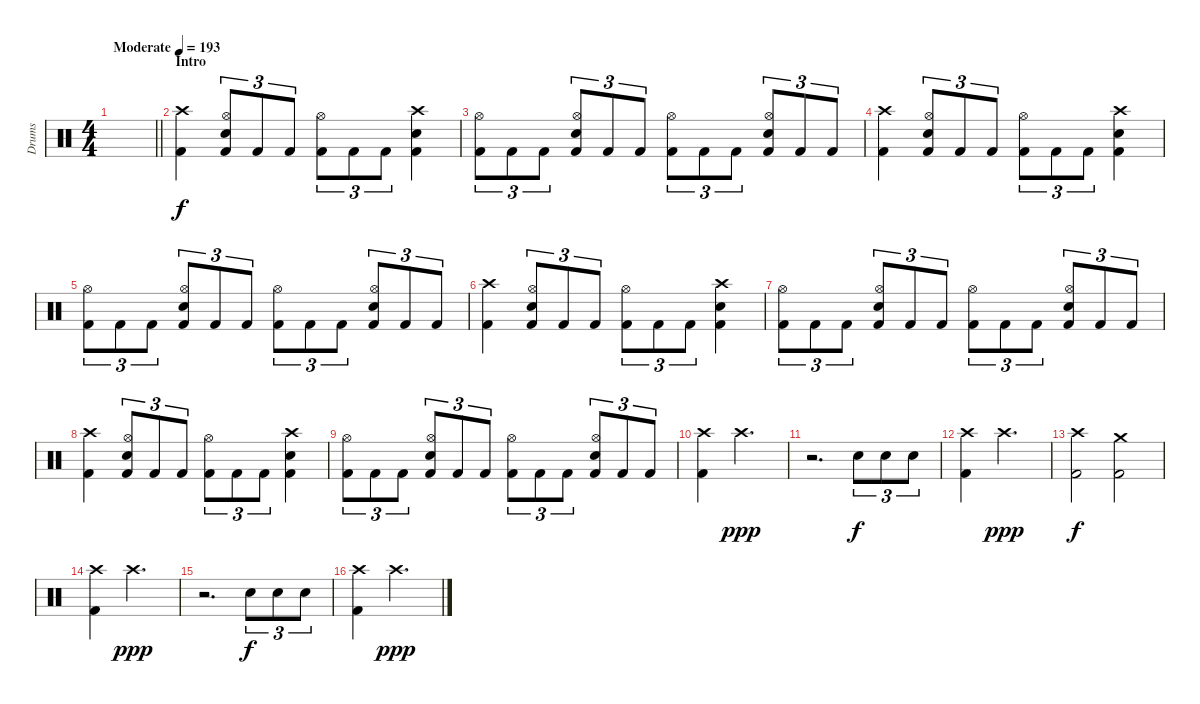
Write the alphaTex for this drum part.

\track ("Drums" "Drums") {instrument percussion}
\staff {score}
\articulation defaults
\ts (4 4)
\tempo (193 "Moderate")
\clef neutral
\barLineRight lightlight
\ks c
|
\section ("" "Intro")
("Crash high (hit)" "Kick (hit) 2").4 ("Hi-Hat (open)" "Electric Snare (hit)" "Kick (hit) 2").8{tu (3 2)} "Kick (hit) 2".8{tu (3 2)} "Kick (hit) 2".8{tu (3 2)} ("Hi-Hat (open)" "Kick (hit) 2").8{tu (3 2)} "Kick (hit) 2".8{tu (3 2)} "Kick (hit) 2".8{tu (3 2)} ("Crash high (hit)" "Electric Snare (hit)" "Kick (hit) 2").4 |
("Hi-Hat (open)" "Kick (hit) 2").8{tu (3 2)} "Kick (hit) 2".8{tu (3 2)} "Kick (hit) 2".8{tu (3 2)} ("Hi-Hat (open)" "Electric Snare (hit)" "Kick (hit) 2").8{tu (3 2)} "Kick (hit) 2".8{tu (3 2)} "Kick (hit) 2".8{tu (3 2)} ("Hi-Hat (open)" "Kick (hit) 2").8{tu (3 2)} "Kick (hit) 2".8{tu (3 2)} "Kick (hit) 2".8{tu (3 2)} ("Hi-Hat (open)" "Electric Snare (hit)" "Kick (hit) 2").8{tu (3 2)} "Kick (hit) 2".8{tu (3 2)} "Kick (hit) 2".8{tu (3 2)} |
("Crash high (hit)" "Kick (hit) 2").4 ("Hi-Hat (open)" "Electric Snare (hit)" "Kick (hit) 2").8{tu (3 2)} "Kick (hit) 2".8{tu (3 2)} "Kick (hit) 2".8{tu (3 2)} ("Hi-Hat (open)" "Kick (hit) 2").8{tu (3 2)} "Kick (hit) 2".8{tu (3 2)} "Kick (hit) 2".8{tu (3 2)} ("Crash high (hit)" "Electric Snare (hit)" "Kick (hit) 2").4 |
("Hi-Hat (open)" "Kick (hit) 2").8{tu (3 2)} "Kick (hit) 2".8{tu (3 2)} "Kick (hit) 2".8{tu (3 2)} ("Hi-Hat (open)" "Electric Snare (hit)" "Kick (hit) 2").8{tu (3 2)} "Kick (hit) 2".8{tu (3 2)} "Kick (hit) 2".8{tu (3 2)} ("Hi-Hat (open)" "Kick (hit) 2").8{tu (3 2)} "Kick (hit) 2".8{tu (3 2)} "Kick (hit) 2".8{tu (3 2)} ("Hi-Hat (open)" "Electric Snare (hit)" "Kick (hit) 2").8{tu (3 2)} "Kick (hit) 2".8{tu (3 2)} "Kick (hit) 2".8{tu (3 2)} |
("Crash high (hit)" "Kick (hit) 2").4 ("Hi-Hat (open)" "Electric Snare (hit)" "Kick (hit) 2").8{tu (3 2)} "Kick (hit) 2".8{tu (3 2)} "Kick (hit) 2".8{tu (3 2)} ("Hi-Hat (open)" "Kick (hit) 2").8{tu (3 2)} "Kick (hit) 2".8{tu (3 2)} "Kick (hit) 2".8{tu (3 2)} ("Crash high (hit)" "Electric Snare (hit)" "Kick (hit) 2").4 |
("Hi-Hat (open)" "Kick (hit) 2").8{tu (3 2)} "Kick (hit) 2".8{tu (3 2)} "Kick (hit) 2".8{tu (3 2)} ("Hi-Hat (open)" "Electric Snare (hit)" "Kick (hit) 2").8{tu (3 2)} "Kick (hit) 2".8{tu (3 2)} "Kick (hit) 2".8{tu (3 2)} ("Hi-Hat (open)" "Kick (hit) 2").8{tu (3 2)} "Kick (hit) 2".8{tu (3 2)} "Kick (hit) 2".8{tu (3 2)} ("Hi-Hat (open)" "Electric Snare (hit)" "Kick (hit) 2").8{tu (3 2)} "Kick (hit) 2".8{tu (3 2)} "Kick (hit) 2".8{tu (3 2)} |
("Crash high (hit)" "Kick (hit) 2").4 ("Hi-Hat (open)" "Electric Snare (hit)" "Kick (hit) 2").8{tu (3 2)} "Kick (hit) 2".8{tu (3 2)} "Kick (hit) 2".8{tu (3 2)} ("Hi-Hat (open)" "Kick (hit) 2").8{tu (3 2)} "Kick (hit) 2".8{tu (3 2)} "Kick (hit) 2".8{tu (3 2)} ("Crash high (hit)" "Electric Snare (hit)" "Kick (hit) 2").4 |
("Hi-Hat (open)" "Kick (hit) 2").8{tu (3 2)} "Kick (hit) 2".8{tu (3 2)} "Kick (hit) 2".8{tu (3 2)} ("Hi-Hat (open)" "Electric Snare (hit)" "Kick (hit) 2").8{tu (3 2)} "Kick (hit) 2".8{tu (3 2)} "Kick (hit) 2".8{tu (3 2)} ("Hi-Hat (open)" "Kick (hit) 2").8{tu (3 2)} "Kick (hit) 2".8{tu (3 2)} "Kick (hit) 2".8{tu (3 2)} ("Hi-Hat (open)" "Electric Snare (hit)" "Kick (hit) 2").8{tu (3 2)} "Kick (hit) 2".8{tu (3 2)} "Kick (hit) 2".8{tu (3 2)} |
("Crash high (hit)" "Kick (hit) 2").4 "Crash high (hit)".2{d dy ppp} |
r.2{d} "Electric Snare (hit)".8{tu (3 2) dy f} "Electric Snare (hit)".8{tu (3 2)} "Electric Snare (hit)".8{tu (3 2)} |
("Crash high (hit)" "Kick (hit) 2").4 "Crash high (hit)".2{d dy ppp} |
("Crash high (hit)" "Kick (hit) 2").2{dy f} ("Crash medium (hit)" "Kick (hit) 2").2 |
("Crash high (hit)" "Kick (hit) 2").4 "Crash high (hit)".2{d dy ppp} |
r.2{d} "Electric Snare (hit)".8{tu (3 2) dy f} "Electric Snare (hit)".8{tu (3 2)} "Electric Snare (hit)".8{tu (3 2)} |
("Crash high (hit)" "Kick (hit) 2").4 "Crash high (hit)".2{d dy ppp}
